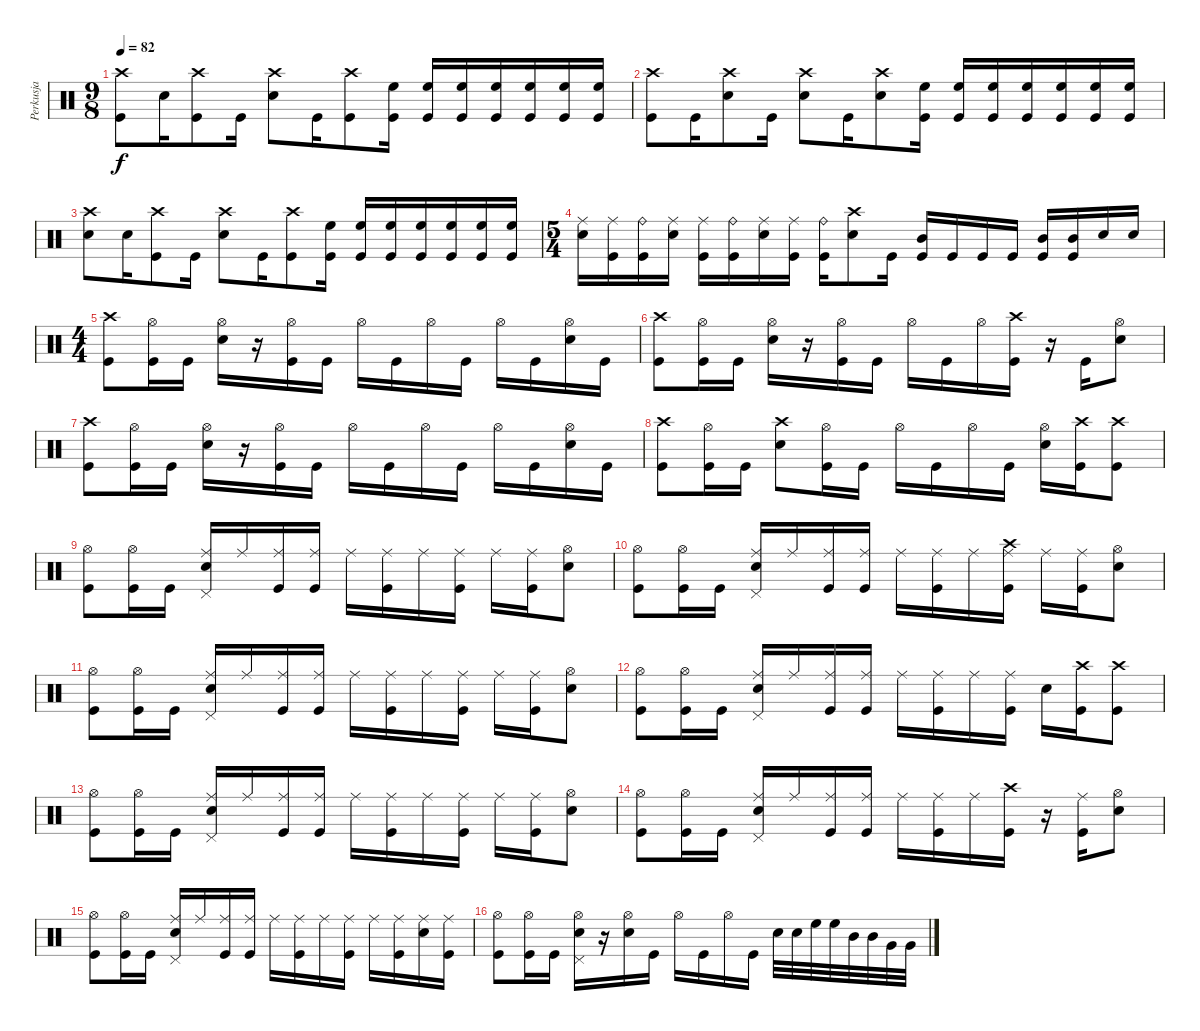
\track ("Perkusja" "Perkusja") {instrument percussion}
\staff {score}
\articulation defaults
\ts (9 8)
\tempo 82
\clef neutral
\ks c
("Crash high (hit)" "Kick (hit)").8{dy f} "Electric Snare (hit)".16 ("Crash high (hit)" "Kick (hit)").8 "Kick (hit)".16 ("Crash high (hit)" "Electric Snare (hit)").8 "Kick (hit)".16 ("Crash high (hit)" "Kick (hit)").8 ("High Floor Tom (hit)" "Kick (hit)").16 ("High Floor Tom (hit)" "Kick (hit)").16 ("High Floor Tom (hit)" "Kick (hit)").16 ("High Floor Tom (hit)" "Kick (hit)").16 ("High Floor Tom (hit)" "Kick (hit)").16 ("High Floor Tom (hit)" "Kick (hit)").16 ("High Floor Tom (hit)" "Kick (hit)").16 |
("Crash high (hit)" "Kick (hit)").8 "Kick (hit)".16 ("Crash high (hit)" "Electric Snare (hit)").8 "Kick (hit)".16 ("Crash high (hit)" "Electric Snare (hit)").8 "Kick (hit)".16 ("Crash high (hit)" "Electric Snare (hit)").8 ("High Floor Tom (hit)" "Kick (hit)").16 ("High Floor Tom (hit)" "Kick (hit)").16 ("High Floor Tom (hit)" "Kick (hit)").16 ("High Floor Tom (hit)" "Kick (hit)").16 ("High Floor Tom (hit)" "Kick (hit)").16 ("High Floor Tom (hit)" "Kick (hit)").16 ("High Floor Tom (hit)" "Kick (hit)").16 |
("Crash high (hit)" "Electric Snare (hit)").8 "Electric Snare (hit)".16 ("Crash high (hit)" "Kick (hit)").8 "Kick (hit)".16 ("Crash high (hit)" "Electric Snare (hit)").8 "Kick (hit)".16 ("Crash high (hit)" "Kick (hit)").8 ("High Floor Tom (hit)" "Kick (hit)").16 ("High Floor Tom (hit)" "Kick (hit)").16 ("High Floor Tom (hit)" "Kick (hit)").16 ("High Floor Tom (hit)" "Kick (hit)").16 ("High Floor Tom (hit)" "Kick (hit)").16 ("High Floor Tom (hit)" "Kick (hit)").16 ("High Floor Tom (hit)" "Kick (hit)").16 |
\ts (5 4)
("Ride (middle)" "Electric Snare (hit)").16 ("Ride (middle)" "Kick (hit)").16 ("Ride (bell)" "Kick (hit)").16 ("Ride (middle)" "Electric Snare (hit)").16 ("Ride (middle)" "Kick (hit)").16 ("Ride (bell)" "Kick (hit)").16 ("Ride (middle)" "Electric Snare (hit)").16 ("Ride (middle)" "Kick (hit)").16 ("Ride (bell)" "Kick (hit)").16 ("Crash high (hit)" "Electric Snare (hit)").8 "Kick (hit)".16 ("Mid Tom (hit)" "Kick (hit)").16 "Kick (hit)".16 "Kick (hit)".16 "Kick (hit)".16 ("Mid Tom (hit)" "Kick (hit)").16 ("Mid Tom (hit)" "Kick (hit)").16 "Electric Snare (hit)".16 "Electric Snare (hit)".16 |
\ts (4 4)
("Crash high (hit)" "Kick (hit)").8 ("Hi-Hat (open)" "Kick (hit)").16 "Kick (hit)".16 ("Hi-Hat (open)" "Electric Snare (hit)").16 r.16 ("Hi-Hat (open)" "Kick (hit)").16 "Kick (hit)".16 "Hi-Hat (open)".16 "Kick (hit)".16 "Hi-Hat (open)".16 "Kick (hit)".16 "Hi-Hat (open)".16 "Kick (hit)".16 ("Hi-Hat (open)" "Electric Snare (hit)").16 "Kick (hit)".16 |
("Crash high (hit)" "Kick (hit)").8 ("Hi-Hat (open)" "Kick (hit)").16 "Kick (hit)".16 ("Hi-Hat (open)" "Electric Snare (hit)").16 r.16 ("Hi-Hat (open)" "Kick (hit)").16 "Kick (hit)".16 "Hi-Hat (open)".16 "Kick (hit)".16 "Hi-Hat (open)".16 ("Crash high (hit)" "Kick (hit)").16 r.16 "Kick (hit)".16 ("Hi-Hat (open)" "Electric Snare (hit)").8 |
("Crash high (hit)" "Kick (hit)").8 ("Hi-Hat (open)" "Kick (hit)").16 "Kick (hit)".16 ("Hi-Hat (open)" "Electric Snare (hit)").16 r.16 ("Hi-Hat (open)" "Kick (hit)").16 "Kick (hit)".16 "Hi-Hat (open)".16 "Kick (hit)".16 "Hi-Hat (open)".16 "Kick (hit)".16 "Hi-Hat (open)".16 "Kick (hit)".16 ("Hi-Hat (open)" "Electric Snare (hit)").16 "Kick (hit)".16 |
("Crash high (hit)" "Kick (hit)").8 ("Hi-Hat (open)" "Kick (hit)").16 "Kick (hit)".16 ("Crash high (hit)" "Electric Snare (hit)").8 ("Hi-Hat (open)" "Kick (hit)").16 "Kick (hit)".16 "Hi-Hat (open)".16 "Kick (hit)".16 "Hi-Hat (open)".16 "Kick (hit)".16 ("Hi-Hat (open)" "Electric Snare (hit)").16 ("Crash high (hit)" "Kick (hit)").16 ("Crash high (hit)" "Kick (hit)").8 |
("Hi-Hat (open)" "Kick (hit)").8 ("Hi-Hat (open)" "Kick (hit)").16 "Kick (hit)".16 ("Ride (middle)" "Electric Snare (hit)" "Pedal Hi-Hat (hit)").16 "Ride (middle)".16 ("Ride (middle)" "Kick (hit)").16 ("Ride (middle)" "Kick (hit)").16 "Ride (middle)".16 ("Ride (middle)" "Kick (hit)").16 "Ride (middle)".16 ("Ride (middle)" "Kick (hit)").16 "Ride (middle)".16 ("Ride (middle)" "Kick (hit)").16 ("Hi-Hat (open)" "Electric Snare (hit)").8 |
("Hi-Hat (open)" "Kick (hit)").8 ("Hi-Hat (open)" "Kick (hit)").16 "Kick (hit)".16 ("Ride (middle)" "Electric Snare (hit)" "Pedal Hi-Hat (hit)").16 "Ride (middle)".16 ("Ride (middle)" "Kick (hit)").16 ("Ride (middle)" "Kick (hit)").16 "Ride (middle)".16 ("Ride (middle)" "Kick (hit)").16 "Ride (middle)".16 ("Crash high (hit)" "Ride (middle)" "Kick (hit)").16 "Ride (middle)".16 ("Ride (middle)" "Kick (hit)").16 ("Hi-Hat (open)" "Electric Snare (hit)").8 |
("Hi-Hat (open)" "Kick (hit)").8 ("Hi-Hat (open)" "Kick (hit)").16 "Kick (hit)".16 ("Ride (middle)" "Electric Snare (hit)" "Pedal Hi-Hat (hit)").16 "Ride (middle)".16 ("Ride (middle)" "Kick (hit)").16 ("Ride (middle)" "Kick (hit)").16 "Ride (middle)".16 ("Ride (middle)" "Kick (hit)").16 "Ride (middle)".16 ("Ride (middle)" "Kick (hit)").16 "Ride (middle)".16 ("Ride (middle)" "Kick (hit)").16 ("Hi-Hat (open)" "Electric Snare (hit)").8 |
("Hi-Hat (open)" "Kick (hit)").8 ("Hi-Hat (open)" "Kick (hit)").16 "Kick (hit)".16 ("Ride (middle)" "Electric Snare (hit)" "Pedal Hi-Hat (hit)").16 "Ride (middle)".16 ("Ride (middle)" "Kick (hit)").16 ("Ride (middle)" "Kick (hit)").16 "Ride (middle)".16 ("Ride (middle)" "Kick (hit)").16 "Ride (middle)".16 ("Ride (middle)" "Kick (hit)").16 "Electric Snare (hit)".16 ("Crash high (hit)" "Kick (hit)").16 ("Crash high (hit)" "Kick (hit)").8 |
("Hi-Hat (open)" "Kick (hit)").8 ("Hi-Hat (open)" "Kick (hit)").16 "Kick (hit)".16 ("Ride (middle)" "Electric Snare (hit)" "Pedal Hi-Hat (hit)").16 "Ride (middle)".16 ("Ride (middle)" "Kick (hit)").16 ("Ride (middle)" "Kick (hit)").16 "Ride (middle)".16 ("Ride (middle)" "Kick (hit)").16 "Ride (middle)".16 ("Ride (middle)" "Kick (hit)").16 "Ride (middle)".16 ("Ride (middle)" "Kick (hit)").16 ("Hi-Hat (open)" "Electric Snare (hit)").8 |
("Hi-Hat (open)" "Kick (hit)").8 ("Hi-Hat (open)" "Kick (hit)").16 "Kick (hit)".16 ("Ride (middle)" "Electric Snare (hit)" "Pedal Hi-Hat (hit)").16 "Ride (middle)".16 ("Ride (middle)" "Kick (hit)").16 ("Ride (middle)" "Kick (hit)").16 "Ride (middle)".16 ("Ride (middle)" "Kick (hit)").16 "Ride (middle)".16 ("Crash high (hit)" "Kick (hit)").16 r.16 ("Ride (middle)" "Kick (hit)").16 ("Hi-Hat (open)" "Electric Snare (hit)").8 |
("Hi-Hat (open)" "Kick (hit)").8 ("Hi-Hat (open)" "Kick (hit)").16 "Kick (hit)".16 ("Ride (middle)" "Electric Snare (hit)" "Pedal Hi-Hat (hit)").16 "Ride (middle)".16 ("Ride (middle)" "Kick (hit)").16 ("Ride (middle)" "Kick (hit)").16 "Ride (middle)".16 ("Ride (middle)" "Kick (hit)").16 "Ride (middle)".16 ("Ride (middle)" "Kick (hit)").16 "Ride (middle)".16 ("Ride (middle)" "Kick (hit)").16 ("Ride (middle)" "Electric Snare (hit)").16 ("Ride (middle)" "Kick (hit)").16 |
("Hi-Hat (open)" "Kick (hit)").8 ("Hi-Hat (open)" "Kick (hit)").16 "Kick (hit)".16 ("Hi-Hat (open)" "Electric Snare (hit)" "Pedal Hi-Hat (hit)").16 r.16 ("Hi-Hat (open)" "Electric Snare (hit)").16 "Kick (hit)".16 "Hi-Hat (open)".16 "Kick (hit)".16 "Hi-Hat (open)".16 "Kick (hit)".16 "Electric Snare (hit)".32 "Electric Snare (hit)".32 "High Floor Tom (hit)".32 "High Floor Tom (hit)".32 "Mid Tom (hit)".32 "Mid Tom (hit)".32 "Very Low Tom (hit)".32 "Very Low Tom (hit)".32
